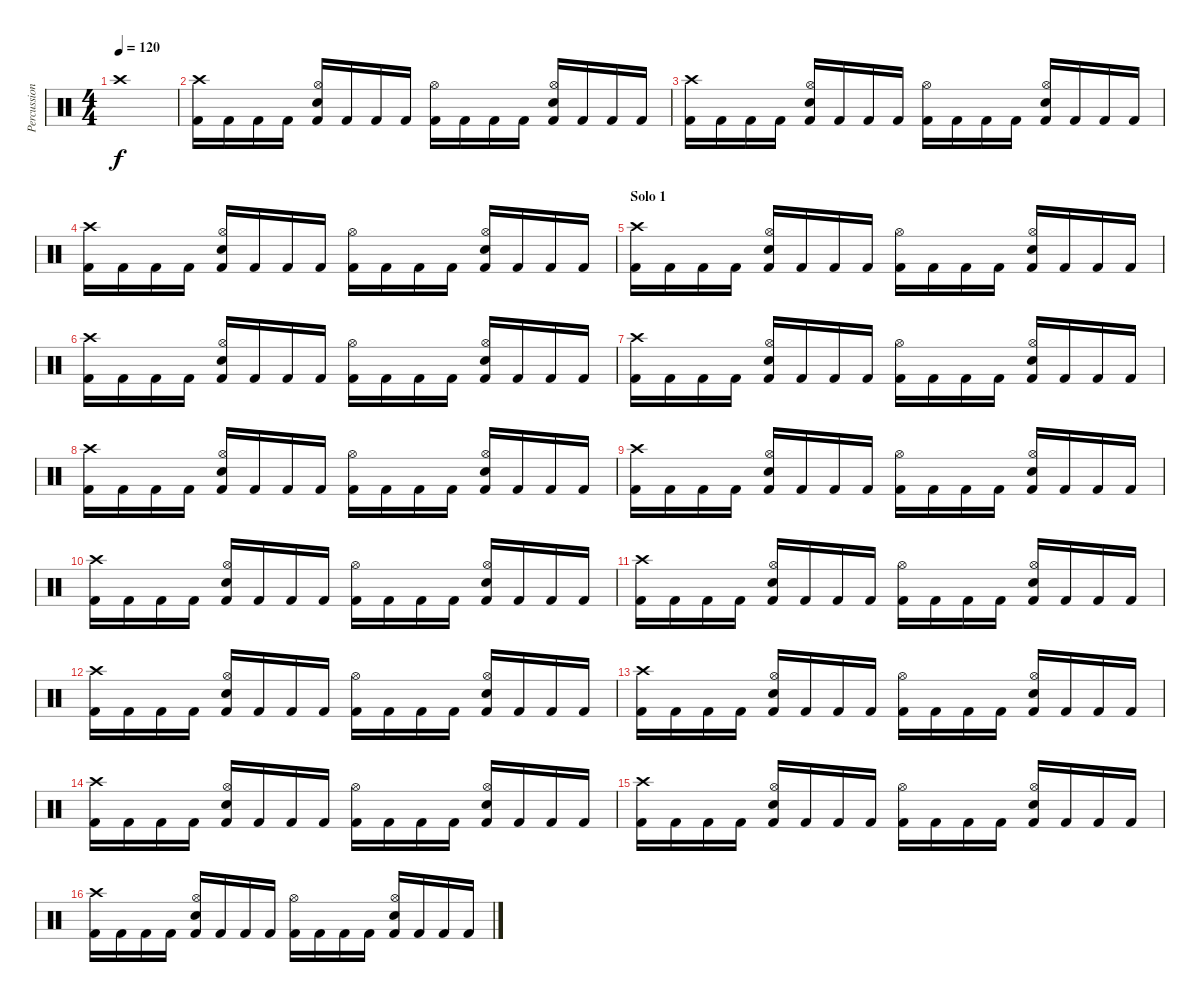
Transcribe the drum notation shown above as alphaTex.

\track ("Percussion" "Percussion") {instrument percussion}
\staff {score}
\articulation defaults
\ts (4 4)
\tempo 120
\clef neutral
\ks c "Crash high (hit)".1{dy f}
|
("Crash high (hit)" "Kick (hit) 2").16 "Kick (hit) 2".16 "Kick (hit) 2".16 "Kick (hit) 2".16 ("Hi-Hat (open)" "Electric Snare (hit)" "Kick (hit) 2").16 "Kick (hit) 2".16 "Kick (hit) 2".16 "Kick (hit) 2".16 ("Hi-Hat (open)" "Kick (hit) 2").16 "Kick (hit) 2".16 "Kick (hit) 2".16 "Kick (hit) 2".16 ("Hi-Hat (open)" "Electric Snare (hit)" "Kick (hit) 2").16 "Kick (hit) 2".16 "Kick (hit) 2".16 "Kick (hit) 2".16 |
("Crash high (hit)" "Kick (hit) 2").16 "Kick (hit) 2".16 "Kick (hit) 2".16 "Kick (hit) 2".16 ("Hi-Hat (open)" "Electric Snare (hit)" "Kick (hit) 2").16 "Kick (hit) 2".16 "Kick (hit) 2".16 "Kick (hit) 2".16 ("Hi-Hat (open)" "Kick (hit) 2").16 "Kick (hit) 2".16 "Kick (hit) 2".16 "Kick (hit) 2".16 ("Hi-Hat (open)" "Electric Snare (hit)" "Kick (hit) 2").16 "Kick (hit) 2".16 "Kick (hit) 2".16 "Kick (hit) 2".16 |
("Crash high (hit)" "Kick (hit) 2").16 "Kick (hit) 2".16 "Kick (hit) 2".16 "Kick (hit) 2".16 ("Hi-Hat (open)" "Electric Snare (hit)" "Kick (hit) 2").16 "Kick (hit) 2".16 "Kick (hit) 2".16 "Kick (hit) 2".16 ("Hi-Hat (open)" "Kick (hit) 2").16 "Kick (hit) 2".16 "Kick (hit) 2".16 "Kick (hit) 2".16 ("Hi-Hat (open)" "Electric Snare (hit)" "Kick (hit) 2").16 "Kick (hit) 2".16 "Kick (hit) 2".16 "Kick (hit) 2".16 |
\section ("" "Solo 1")
("Crash high (hit)" "Kick (hit) 2").16 "Kick (hit) 2".16 "Kick (hit) 2".16 "Kick (hit) 2".16 ("Hi-Hat (open)" "Electric Snare (hit)" "Kick (hit) 2").16 "Kick (hit) 2".16 "Kick (hit) 2".16 "Kick (hit) 2".16 ("Hi-Hat (open)" "Kick (hit) 2").16 "Kick (hit) 2".16 "Kick (hit) 2".16 "Kick (hit) 2".16 ("Hi-Hat (open)" "Electric Snare (hit)" "Kick (hit) 2").16 "Kick (hit) 2".16 "Kick (hit) 2".16 "Kick (hit) 2".16 |
("Crash high (hit)" "Kick (hit) 2").16 "Kick (hit) 2".16 "Kick (hit) 2".16 "Kick (hit) 2".16 ("Hi-Hat (open)" "Electric Snare (hit)" "Kick (hit) 2").16 "Kick (hit) 2".16 "Kick (hit) 2".16 "Kick (hit) 2".16 ("Hi-Hat (open)" "Kick (hit) 2").16 "Kick (hit) 2".16 "Kick (hit) 2".16 "Kick (hit) 2".16 ("Hi-Hat (open)" "Electric Snare (hit)" "Kick (hit) 2").16 "Kick (hit) 2".16 "Kick (hit) 2".16 "Kick (hit) 2".16 |
("Crash high (hit)" "Kick (hit) 2").16 "Kick (hit) 2".16 "Kick (hit) 2".16 "Kick (hit) 2".16 ("Hi-Hat (open)" "Electric Snare (hit)" "Kick (hit) 2").16 "Kick (hit) 2".16 "Kick (hit) 2".16 "Kick (hit) 2".16 ("Hi-Hat (open)" "Kick (hit) 2").16 "Kick (hit) 2".16 "Kick (hit) 2".16 "Kick (hit) 2".16 ("Hi-Hat (open)" "Electric Snare (hit)" "Kick (hit) 2").16 "Kick (hit) 2".16 "Kick (hit) 2".16 "Kick (hit) 2".16 |
("Crash high (hit)" "Kick (hit) 2").16 "Kick (hit) 2".16 "Kick (hit) 2".16 "Kick (hit) 2".16 ("Hi-Hat (open)" "Electric Snare (hit)" "Kick (hit) 2").16 "Kick (hit) 2".16 "Kick (hit) 2".16 "Kick (hit) 2".16 ("Hi-Hat (open)" "Kick (hit) 2").16 "Kick (hit) 2".16 "Kick (hit) 2".16 "Kick (hit) 2".16 ("Hi-Hat (open)" "Electric Snare (hit)" "Kick (hit) 2").16 "Kick (hit) 2".16 "Kick (hit) 2".16 "Kick (hit) 2".16 |
("Crash high (hit)" "Kick (hit) 2").16 "Kick (hit) 2".16 "Kick (hit) 2".16 "Kick (hit) 2".16 ("Hi-Hat (open)" "Electric Snare (hit)" "Kick (hit) 2").16 "Kick (hit) 2".16 "Kick (hit) 2".16 "Kick (hit) 2".16 ("Hi-Hat (open)" "Kick (hit) 2").16 "Kick (hit) 2".16 "Kick (hit) 2".16 "Kick (hit) 2".16 ("Hi-Hat (open)" "Electric Snare (hit)" "Kick (hit) 2").16 "Kick (hit) 2".16 "Kick (hit) 2".16 "Kick (hit) 2".16 |
("Crash high (hit)" "Kick (hit) 2").16 "Kick (hit) 2".16 "Kick (hit) 2".16 "Kick (hit) 2".16 ("Hi-Hat (open)" "Electric Snare (hit)" "Kick (hit) 2").16 "Kick (hit) 2".16 "Kick (hit) 2".16 "Kick (hit) 2".16 ("Hi-Hat (open)" "Kick (hit) 2").16 "Kick (hit) 2".16 "Kick (hit) 2".16 "Kick (hit) 2".16 ("Hi-Hat (open)" "Electric Snare (hit)" "Kick (hit) 2").16 "Kick (hit) 2".16 "Kick (hit) 2".16 "Kick (hit) 2".16 |
("Crash high (hit)" "Kick (hit) 2").16 "Kick (hit) 2".16 "Kick (hit) 2".16 "Kick (hit) 2".16 ("Hi-Hat (open)" "Electric Snare (hit)" "Kick (hit) 2").16 "Kick (hit) 2".16 "Kick (hit) 2".16 "Kick (hit) 2".16 ("Hi-Hat (open)" "Kick (hit) 2").16 "Kick (hit) 2".16 "Kick (hit) 2".16 "Kick (hit) 2".16 ("Hi-Hat (open)" "Electric Snare (hit)" "Kick (hit) 2").16 "Kick (hit) 2".16 "Kick (hit) 2".16 "Kick (hit) 2".16 |
("Crash high (hit)" "Kick (hit) 2").16 "Kick (hit) 2".16 "Kick (hit) 2".16 "Kick (hit) 2".16 ("Hi-Hat (open)" "Electric Snare (hit)" "Kick (hit) 2").16 "Kick (hit) 2".16 "Kick (hit) 2".16 "Kick (hit) 2".16 ("Hi-Hat (open)" "Kick (hit) 2").16 "Kick (hit) 2".16 "Kick (hit) 2".16 "Kick (hit) 2".16 ("Hi-Hat (open)" "Electric Snare (hit)" "Kick (hit) 2").16 "Kick (hit) 2".16 "Kick (hit) 2".16 "Kick (hit) 2".16 |
("Crash high (hit)" "Kick (hit) 2").16 "Kick (hit) 2".16 "Kick (hit) 2".16 "Kick (hit) 2".16 ("Hi-Hat (open)" "Electric Snare (hit)" "Kick (hit) 2").16 "Kick (hit) 2".16 "Kick (hit) 2".16 "Kick (hit) 2".16 ("Hi-Hat (open)" "Kick (hit) 2").16 "Kick (hit) 2".16 "Kick (hit) 2".16 "Kick (hit) 2".16 ("Hi-Hat (open)" "Electric Snare (hit)" "Kick (hit) 2").16 "Kick (hit) 2".16 "Kick (hit) 2".16 "Kick (hit) 2".16 |
("Crash high (hit)" "Kick (hit) 2").16 "Kick (hit) 2".16 "Kick (hit) 2".16 "Kick (hit) 2".16 ("Hi-Hat (open)" "Electric Snare (hit)" "Kick (hit) 2").16 "Kick (hit) 2".16 "Kick (hit) 2".16 "Kick (hit) 2".16 ("Hi-Hat (open)" "Kick (hit) 2").16 "Kick (hit) 2".16 "Kick (hit) 2".16 "Kick (hit) 2".16 ("Hi-Hat (open)" "Electric Snare (hit)" "Kick (hit) 2").16 "Kick (hit) 2".16 "Kick (hit) 2".16 "Kick (hit) 2".16 |
("Crash high (hit)" "Kick (hit) 2").16 "Kick (hit) 2".16 "Kick (hit) 2".16 "Kick (hit) 2".16 ("Hi-Hat (open)" "Electric Snare (hit)" "Kick (hit) 2").16 "Kick (hit) 2".16 "Kick (hit) 2".16 "Kick (hit) 2".16 ("Hi-Hat (open)" "Kick (hit) 2").16 "Kick (hit) 2".16 "Kick (hit) 2".16 "Kick (hit) 2".16 ("Hi-Hat (open)" "Electric Snare (hit)" "Kick (hit) 2").16 "Kick (hit) 2".16 "Kick (hit) 2".16 "Kick (hit) 2".16 |
("Crash high (hit)" "Kick (hit) 2").16 "Kick (hit) 2".16 "Kick (hit) 2".16 "Kick (hit) 2".16 ("Hi-Hat (open)" "Electric Snare (hit)" "Kick (hit) 2").16 "Kick (hit) 2".16 "Kick (hit) 2".16 "Kick (hit) 2".16 ("Hi-Hat (open)" "Kick (hit) 2").16 "Kick (hit) 2".16 "Kick (hit) 2".16 "Kick (hit) 2".16 ("Hi-Hat (open)" "Electric Snare (hit)" "Kick (hit) 2").16 "Kick (hit) 2".16 "Kick (hit) 2".16 "Kick (hit) 2".16
